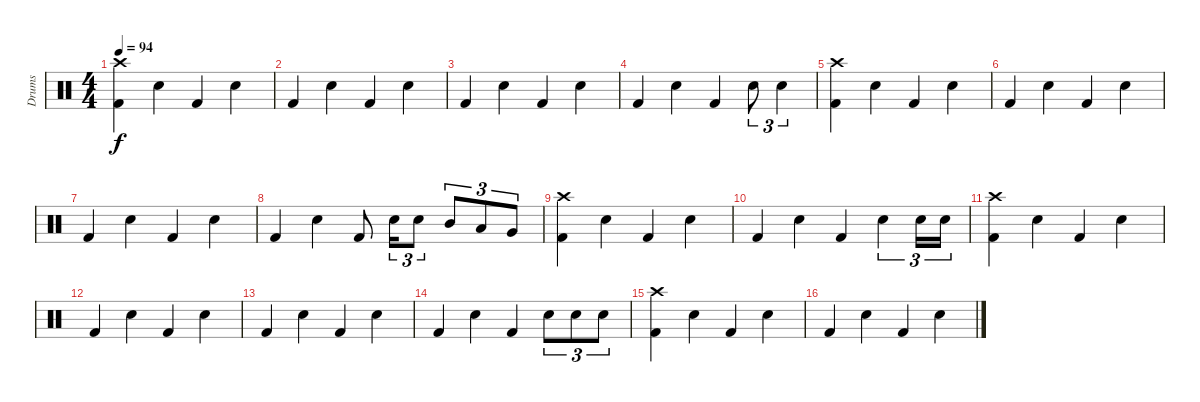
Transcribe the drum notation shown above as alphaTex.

\track ("Drums" "Drums") {instrument percussion}
\staff {score}
\articulation defaults
\ts (4 4)
\tempo 94
\clef neutral
\ks c
("Crash high (hit)" "Kick (hit) 2").4{dy f} "Snare (hit) 2".4 "Kick (hit) 2".4 "Snare (hit) 2".4 |
"Kick (hit) 2".4 "Snare (hit) 2".4 "Kick (hit) 2".4 "Snare (hit) 2".4 |
"Kick (hit) 2".4 "Snare (hit) 2".4 "Kick (hit) 2".4 "Snare (hit) 2".4 |
"Kick (hit) 2".4 "Snare (hit) 2".4 "Kick (hit) 2".4 "Snare (hit) 2".8{tu (3 2)} "Snare (hit) 2".4{tu (3 2)} |
("Crash high (hit)" "Kick (hit) 2").4 "Snare (hit) 2".4 "Kick (hit) 2".4 "Snare (hit) 2".4 |
"Kick (hit) 2".4 "Snare (hit) 2".4 "Kick (hit) 2".4 "Snare (hit) 2".4 |
"Kick (hit) 2".4 "Snare (hit) 2".4 "Kick (hit) 2".4 "Snare (hit) 2".4 |
"Kick (hit) 2".4 "Snare (hit) 2".4 "Kick (hit) 2".8 "Snare (hit) 2".16{tu (3 2)} "Snare (hit) 2".8{tu (3 2)} "Mid Tom (hit)".8{tu (3 2)} "Low Tom (hit)".8{tu (3 2)} "Very Low Tom (hit)".8{tu (3 2)} |
("Crash high (hit)" "Kick (hit) 2").4 "Snare (hit) 2".4 "Kick (hit) 2".4 "Snare (hit) 2".4 |
"Kick (hit) 2".4 "Snare (hit) 2".4 "Kick (hit) 2".4 "Snare (hit) 2".4{tu (3 2)} "Snare (hit) 2".16{tu (3 2)} "Snare (hit) 2".16{tu (3 2)} |
("Crash high (hit)" "Kick (hit) 2").4 "Snare (hit) 2".4 "Kick (hit) 2".4 "Snare (hit) 2".4 |
"Kick (hit) 2".4 "Snare (hit) 2".4 "Kick (hit) 2".4 "Snare (hit) 2".4 |
"Kick (hit) 2".4 "Snare (hit) 2".4 "Kick (hit) 2".4 "Snare (hit) 2".4 |
"Kick (hit) 2".4 "Snare (hit) 2".4 "Kick (hit) 2".4 "Snare (hit) 2".8{tu (3 2)} "Snare (hit) 2".8{tu (3 2)} "Snare (hit) 2".8{tu (3 2)} |
("Crash high (hit)" "Kick (hit) 2").4 "Snare (hit) 2".4 "Kick (hit) 2".4 "Snare (hit) 2".4 |
"Kick (hit) 2".4 "Snare (hit) 2".4 "Kick (hit) 2".4 "Snare (hit) 2".4
